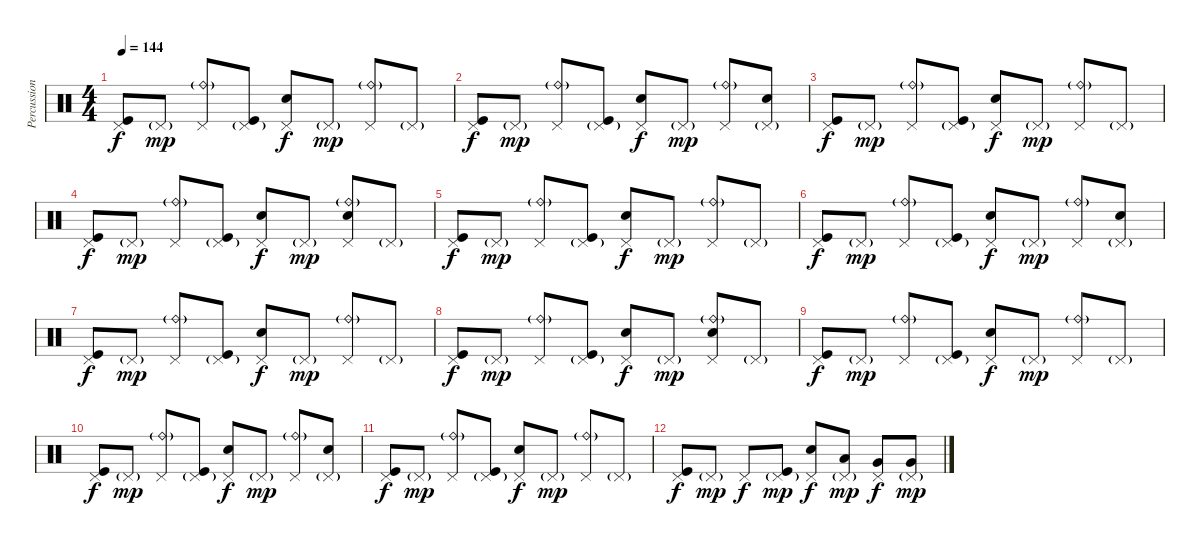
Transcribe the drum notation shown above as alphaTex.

\track ("Percussion" "Percussion") {instrument percussion}
\staff {score}
\articulation defaults
\ts (4 4)
\tempo 144
\clef neutral
\ks c
("Pedal Hi-Hat (hit)" "Kick (hit)").8{dy f} "Pedal Hi-Hat (hit)"{g}.8{dy mp} ("Ride (bell)"{g} "Pedal Hi-Hat (hit)").8 ("Pedal Hi-Hat (hit)"{g} "Kick (hit)").8 ("Pedal Hi-Hat (hit)" "Snare (hit) 2").8{dy f} "Pedal Hi-Hat (hit)"{g}.8{dy mp} ("Ride (bell)"{g} "Pedal Hi-Hat (hit)").8 "Pedal Hi-Hat (hit)"{g}.8 |
("Pedal Hi-Hat (hit)" "Kick (hit)").8{dy f} "Pedal Hi-Hat (hit)"{g}.8{dy mp} ("Ride (bell)"{g} "Pedal Hi-Hat (hit)").8 ("Pedal Hi-Hat (hit)"{g} "Kick (hit)").8 ("Pedal Hi-Hat (hit)" "Snare (hit) 2").8{dy f} "Pedal Hi-Hat (hit)"{g}.8{dy mp} ("Ride (bell)"{g} "Pedal Hi-Hat (hit)").8 ("Pedal Hi-Hat (hit)"{g} "Snare (hit) 2").8 |
("Pedal Hi-Hat (hit)" "Kick (hit)").8{dy f} "Pedal Hi-Hat (hit)"{g}.8{dy mp} ("Ride (bell)"{g} "Pedal Hi-Hat (hit)").8 ("Pedal Hi-Hat (hit)"{g} "Kick (hit)").8 ("Pedal Hi-Hat (hit)" "Snare (hit) 2").8{dy f} "Pedal Hi-Hat (hit)"{g}.8{dy mp} ("Ride (bell)"{g} "Pedal Hi-Hat (hit)").8 "Pedal Hi-Hat (hit)"{g}.8 |
("Pedal Hi-Hat (hit)" "Kick (hit)").8{dy f} "Pedal Hi-Hat (hit)"{g}.8{dy mp} ("Ride (bell)"{g} "Pedal Hi-Hat (hit)").8 ("Pedal Hi-Hat (hit)"{g} "Kick (hit)").8 ("Pedal Hi-Hat (hit)" "Snare (hit) 2").8{dy f} "Pedal Hi-Hat (hit)"{g}.8{dy mp} ("Ride (bell)"{g} "Pedal Hi-Hat (hit)" "Snare (hit) 2").8 "Pedal Hi-Hat (hit)"{g}.8 |
("Pedal Hi-Hat (hit)" "Kick (hit)").8{dy f} "Pedal Hi-Hat (hit)"{g}.8{dy mp} ("Ride (bell)"{g} "Pedal Hi-Hat (hit)").8 ("Pedal Hi-Hat (hit)"{g} "Kick (hit)").8 ("Pedal Hi-Hat (hit)" "Snare (hit) 2").8{dy f} "Pedal Hi-Hat (hit)"{g}.8{dy mp} ("Ride (bell)"{g} "Pedal Hi-Hat (hit)").8 "Pedal Hi-Hat (hit)"{g}.8 |
("Pedal Hi-Hat (hit)" "Kick (hit)").8{dy f} "Pedal Hi-Hat (hit)"{g}.8{dy mp} ("Ride (bell)"{g} "Pedal Hi-Hat (hit)").8 ("Pedal Hi-Hat (hit)"{g} "Kick (hit)").8 ("Pedal Hi-Hat (hit)" "Snare (hit) 2").8{dy f} "Pedal Hi-Hat (hit)"{g}.8{dy mp} ("Ride (bell)"{g} "Pedal Hi-Hat (hit)").8 ("Pedal Hi-Hat (hit)"{g} "Snare (hit) 2").8 |
("Pedal Hi-Hat (hit)" "Kick (hit)").8{dy f} "Pedal Hi-Hat (hit)"{g}.8{dy mp} ("Ride (bell)"{g} "Pedal Hi-Hat (hit)").8 ("Pedal Hi-Hat (hit)"{g} "Kick (hit)").8 ("Pedal Hi-Hat (hit)" "Snare (hit) 2").8{dy f} "Pedal Hi-Hat (hit)"{g}.8{dy mp} ("Ride (bell)"{g} "Pedal Hi-Hat (hit)").8 "Pedal Hi-Hat (hit)"{g}.8 |
("Pedal Hi-Hat (hit)" "Kick (hit)").8{dy f} "Pedal Hi-Hat (hit)"{g}.8{dy mp} ("Ride (bell)"{g} "Pedal Hi-Hat (hit)").8 ("Pedal Hi-Hat (hit)"{g} "Kick (hit)").8 ("Pedal Hi-Hat (hit)" "Snare (hit) 2").8{dy f} "Pedal Hi-Hat (hit)"{g}.8{dy mp} ("Ride (bell)"{g} "Pedal Hi-Hat (hit)" "Snare (hit) 2").8 "Pedal Hi-Hat (hit)"{g}.8 |
("Pedal Hi-Hat (hit)" "Kick (hit)").8{dy f} "Pedal Hi-Hat (hit)"{g}.8{dy mp} ("Ride (bell)"{g} "Pedal Hi-Hat (hit)").8 ("Pedal Hi-Hat (hit)"{g} "Kick (hit)").8 ("Pedal Hi-Hat (hit)" "Snare (hit) 2").8{dy f} "Pedal Hi-Hat (hit)"{g}.8{dy mp} ("Ride (bell)"{g} "Pedal Hi-Hat (hit)").8 "Pedal Hi-Hat (hit)"{g}.8 |
("Pedal Hi-Hat (hit)" "Kick (hit)").8{dy f} "Pedal Hi-Hat (hit)"{g}.8{dy mp} ("Ride (bell)"{g} "Pedal Hi-Hat (hit)").8 ("Pedal Hi-Hat (hit)"{g} "Kick (hit)").8 ("Pedal Hi-Hat (hit)" "Snare (hit) 2").8{dy f} "Pedal Hi-Hat (hit)"{g}.8{dy mp} ("Ride (bell)"{g} "Pedal Hi-Hat (hit)").8 ("Pedal Hi-Hat (hit)"{g} "Snare (hit) 2").8 |
("Pedal Hi-Hat (hit)" "Kick (hit)").8{dy f} "Pedal Hi-Hat (hit)"{g}.8{dy mp} ("Ride (bell)"{g} "Pedal Hi-Hat (hit)").8 ("Pedal Hi-Hat (hit)"{g} "Kick (hit)").8 ("Pedal Hi-Hat (hit)" "Snare (hit) 2").8{dy f} "Pedal Hi-Hat (hit)"{g}.8{dy mp} ("Ride (bell)"{g} "Pedal Hi-Hat (hit)").8 "Pedal Hi-Hat (hit)"{g}.8 |
("Pedal Hi-Hat (hit)" "Kick (hit)").8{dy f} "Pedal Hi-Hat (hit)"{g}.8{dy mp} "Pedal Hi-Hat (hit)".8{dy f} ("Pedal Hi-Hat (hit)"{g} "Kick (hit)").8{dy mp} ("Pedal Hi-Hat (hit)" "Snare (hit) 2").8{dy f} ("Pedal Hi-Hat (hit)"{g} "Low Tom (hit)").8{dy mp} ("Pedal Hi-Hat (hit)" "Very Low Tom (hit)").8{dy f} ("Pedal Hi-Hat (hit)"{g} "Very Low Tom (hit)").8{dy mp}
